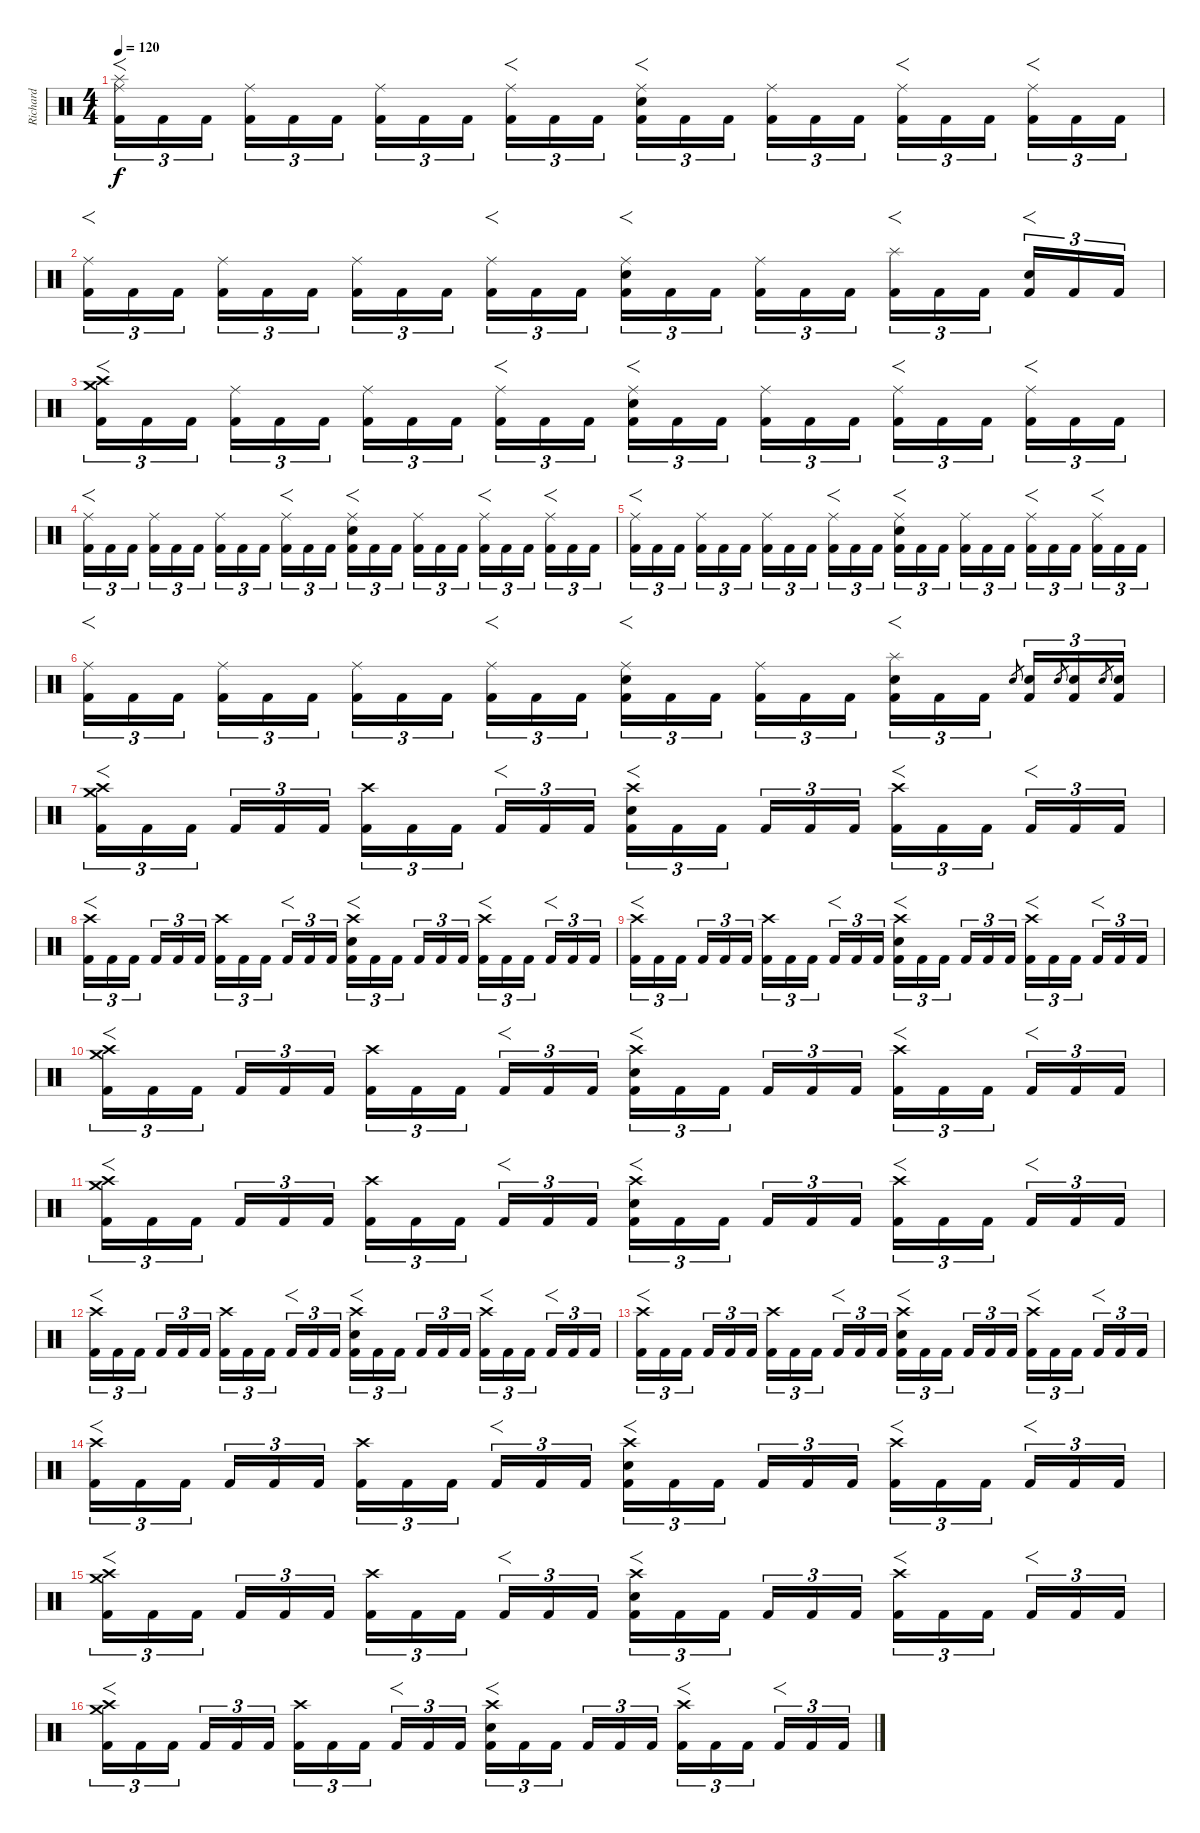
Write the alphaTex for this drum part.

\track ("Richard " "Richard ") {instrument percussion}
\staff {score}
\articulation defaults
\ts (4 4)
\tempo 120
\clef neutral
\ks c
("Ride (middle)" "Splash (hit)" "Kick (hit) 2").16{f tu (3 2) dy f} "Kick (hit) 2".16{tu (3 2)} "Kick (hit) 2".16{tu (3 2)} ("Ride (middle)" "Kick (hit) 2").16{tu (3 2)} "Kick (hit) 2".16{tu (3 2)} "Kick (hit) 2".16{tu (3 2)} ("Ride (middle)" "Kick (hit) 2").16{tu (3 2)} "Kick (hit) 2".16{tu (3 2)} "Kick (hit) 2".16{tu (3 2)} ("Ride (middle)" "Kick (hit) 2").16{f tu (3 2)} "Kick (hit) 2".16{tu (3 2)} "Kick (hit) 2".16{tu (3 2)} ("Ride (middle)" "Snare (hit) 2" "Kick (hit) 2").16{f tu (3 2)} "Kick (hit) 2".16{tu (3 2)} "Kick (hit) 2".16{tu (3 2)} ("Ride (middle)" "Kick (hit) 2").16{tu (3 2)} "Kick (hit) 2".16{tu (3 2)} "Kick (hit) 2".16{tu (3 2)} ("Ride (middle)" "Kick (hit) 2").16{f tu (3 2)} "Kick (hit) 2".16{tu (3 2)} "Kick (hit) 2".16{tu (3 2)} ("Ride (middle)" "Kick (hit) 2").16{f tu (3 2)} "Kick (hit) 2".16{tu (3 2)} "Kick (hit) 2".16{tu (3 2)} |
("Ride (middle)" "Kick (hit) 2").16{f tu (3 2)} "Kick (hit) 2".16{tu (3 2)} "Kick (hit) 2".16{tu (3 2)} ("Ride (middle)" "Kick (hit) 2").16{tu (3 2)} "Kick (hit) 2".16{tu (3 2)} "Kick (hit) 2".16{tu (3 2)} ("Ride (middle)" "Kick (hit) 2").16{tu (3 2)} "Kick (hit) 2".16{tu (3 2)} "Kick (hit) 2".16{tu (3 2)} ("Ride (middle)" "Kick (hit) 2").16{f tu (3 2)} "Kick (hit) 2".16{tu (3 2)} "Kick (hit) 2".16{tu (3 2)} ("Ride (middle)" "Snare (hit) 2" "Kick (hit) 2").16{f tu (3 2)} "Kick (hit) 2".16{tu (3 2)} "Kick (hit) 2".16{tu (3 2)} ("Ride (middle)" "Kick (hit) 2").16{tu (3 2)} "Kick (hit) 2".16{tu (3 2)} "Kick (hit) 2".16{tu (3 2)} ("Splash (hit)" "Kick (hit) 2").16{f tu (3 2)} "Kick (hit) 2".16{tu (3 2)} "Kick (hit) 2".16{tu (3 2)} ("Snare (hit) 2" "Kick (hit) 2").16{f tu (3 2)} "Kick (hit) 2".16{tu (3 2)} "Kick (hit) 2".16{tu (3 2)} |
("Crash high (hit)" "Crash medium (hit)" "Kick (hit) 2").16{f tu (3 2)} "Kick (hit) 2".16{tu (3 2)} "Kick (hit) 2".16{tu (3 2)} ("Ride (middle)" "Kick (hit) 2").16{tu (3 2)} "Kick (hit) 2".16{tu (3 2)} "Kick (hit) 2".16{tu (3 2)} ("Ride (middle)" "Kick (hit) 2").16{tu (3 2)} "Kick (hit) 2".16{tu (3 2)} "Kick (hit) 2".16{tu (3 2)} ("Ride (middle)" "Kick (hit) 2").16{f tu (3 2)} "Kick (hit) 2".16{tu (3 2)} "Kick (hit) 2".16{tu (3 2)} ("Ride (middle)" "Snare (hit) 2" "Kick (hit) 2").16{f tu (3 2)} "Kick (hit) 2".16{tu (3 2)} "Kick (hit) 2".16{tu (3 2)} ("Ride (middle)" "Kick (hit) 2").16{tu (3 2)} "Kick (hit) 2".16{tu (3 2)} "Kick (hit) 2".16{tu (3 2)} ("Ride (middle)" "Kick (hit) 2").16{f tu (3 2)} "Kick (hit) 2".16{tu (3 2)} "Kick (hit) 2".16{tu (3 2)} ("Ride (middle)" "Kick (hit) 2").16{f tu (3 2)} "Kick (hit) 2".16{tu (3 2)} "Kick (hit) 2".16{tu (3 2)} |
("Ride (middle)" "Kick (hit) 2").16{f tu (3 2)} "Kick (hit) 2".16{tu (3 2)} "Kick (hit) 2".16{tu (3 2)} ("Ride (middle)" "Kick (hit) 2").16{tu (3 2)} "Kick (hit) 2".16{tu (3 2)} "Kick (hit) 2".16{tu (3 2)} ("Ride (middle)" "Kick (hit) 2").16{tu (3 2)} "Kick (hit) 2".16{tu (3 2)} "Kick (hit) 2".16{tu (3 2)} ("Ride (middle)" "Kick (hit) 2").16{f tu (3 2)} "Kick (hit) 2".16{tu (3 2)} "Kick (hit) 2".16{tu (3 2)} ("Ride (middle)" "Snare (hit) 2" "Kick (hit) 2").16{f tu (3 2)} "Kick (hit) 2".16{tu (3 2)} "Kick (hit) 2".16{tu (3 2)} ("Ride (middle)" "Kick (hit) 2").16{tu (3 2)} "Kick (hit) 2".16{tu (3 2)} "Kick (hit) 2".16{tu (3 2)} ("Ride (middle)" "Kick (hit) 2").16{f tu (3 2)} "Kick (hit) 2".16{tu (3 2)} "Kick (hit) 2".16{tu (3 2)} ("Ride (middle)" "Kick (hit) 2").16{f tu (3 2)} "Kick (hit) 2".16{tu (3 2)} "Kick (hit) 2".16{tu (3 2)} |
("Ride (middle)" "Kick (hit) 2").16{f tu (3 2)} "Kick (hit) 2".16{tu (3 2)} "Kick (hit) 2".16{tu (3 2)} ("Ride (middle)" "Kick (hit) 2").16{tu (3 2)} "Kick (hit) 2".16{tu (3 2)} "Kick (hit) 2".16{tu (3 2)} ("Ride (middle)" "Kick (hit) 2").16{tu (3 2)} "Kick (hit) 2".16{tu (3 2)} "Kick (hit) 2".16{tu (3 2)} ("Ride (middle)" "Kick (hit) 2").16{f tu (3 2)} "Kick (hit) 2".16{tu (3 2)} "Kick (hit) 2".16{tu (3 2)} ("Ride (middle)" "Snare (hit) 2" "Kick (hit) 2").16{f tu (3 2)} "Kick (hit) 2".16{tu (3 2)} "Kick (hit) 2".16{tu (3 2)} ("Ride (middle)" "Kick (hit) 2").16{tu (3 2)} "Kick (hit) 2".16{tu (3 2)} "Kick (hit) 2".16{tu (3 2)} ("Ride (middle)" "Kick (hit) 2").16{f tu (3 2)} "Kick (hit) 2".16{tu (3 2)} "Kick (hit) 2".16{tu (3 2)} ("Ride (middle)" "Kick (hit) 2").16{f tu (3 2)} "Kick (hit) 2".16{tu (3 2)} "Kick (hit) 2".16{tu (3 2)} |
("Ride (middle)" "Kick (hit) 2").16{f tu (3 2)} "Kick (hit) 2".16{tu (3 2)} "Kick (hit) 2".16{tu (3 2)} ("Ride (middle)" "Kick (hit) 2").16{tu (3 2)} "Kick (hit) 2".16{tu (3 2)} "Kick (hit) 2".16{tu (3 2)} ("Ride (middle)" "Kick (hit) 2").16{tu (3 2)} "Kick (hit) 2".16{tu (3 2)} "Kick (hit) 2".16{tu (3 2)} ("Ride (middle)" "Kick (hit) 2").16{f tu (3 2)} "Kick (hit) 2".16{tu (3 2)} "Kick (hit) 2".16{tu (3 2)} ("Ride (middle)" "Snare (hit) 2" "Kick (hit) 2").16{f tu (3 2)} "Kick (hit) 2".16{tu (3 2)} "Kick (hit) 2".16{tu (3 2)} ("Ride (middle)" "Kick (hit) 2").16{tu (3 2)} "Kick (hit) 2".16{tu (3 2)} "Kick (hit) 2".16{tu (3 2)} ("Splash (hit)" "Snare (hit) 2" "Kick (hit) 2").16{f tu (3 2)} "Kick (hit) 2".16{tu (3 2)} "Kick (hit) 2".16{tu (3 2)} "Snare (hit) 2".8{gr} ("Snare (hit) 2" "Kick (hit) 2").16{tu (3 2)} "Snare (hit) 2".8{gr} ("Snare (hit) 2" "Kick (hit) 2").16{tu (3 2)} "Snare (hit) 2".8{gr} ("Snare (hit) 2" "Kick (hit) 2").16{tu (3 2)} |
("Crash high (hit)" "Crash medium (hit)" "Kick (hit) 2").16{f tu (3 2)} "Kick (hit) 2".16{tu (3 2)} "Kick (hit) 2".16{tu (3 2)} "Kick (hit) 2".16{tu (3 2)} "Kick (hit) 2".16{tu (3 2)} "Kick (hit) 2".16{tu (3 2)} ("Crash high (hit)" "Kick (hit) 2").16{tu (3 2)} "Kick (hit) 2".16{tu (3 2)} "Kick (hit) 2".16{tu (3 2)} "Kick (hit) 2".16{f tu (3 2)} "Kick (hit) 2".16{tu (3 2)} "Kick (hit) 2".16{tu (3 2)} ("Crash high (hit)" "Snare (hit) 2" "Kick (hit) 2").16{f tu (3 2)} "Kick (hit) 2".16{tu (3 2)} "Kick (hit) 2".16{tu (3 2)} "Kick (hit) 2".16{tu (3 2)} "Kick (hit) 2".16{tu (3 2)} "Kick (hit) 2".16{tu (3 2)} ("Crash high (hit)" "Kick (hit) 2").16{f tu (3 2)} "Kick (hit) 2".16{tu (3 2)} "Kick (hit) 2".16{tu (3 2)} "Kick (hit) 2".16{f tu (3 2)} "Kick (hit) 2".16{tu (3 2)} "Kick (hit) 2".16{tu (3 2)} |
("Crash high (hit)" "Kick (hit) 2").16{f tu (3 2) volume 15} "Kick (hit) 2".16{tu (3 2)} "Kick (hit) 2".16{tu (3 2)} "Kick (hit) 2".16{tu (3 2)} "Kick (hit) 2".16{tu (3 2)} "Kick (hit) 2".16{tu (3 2)} ("Crash high (hit)" "Kick (hit) 2").16{tu (3 2)} "Kick (hit) 2".16{tu (3 2)} "Kick (hit) 2".16{tu (3 2)} "Kick (hit) 2".16{f tu (3 2)} "Kick (hit) 2".16{tu (3 2)} "Kick (hit) 2".16{tu (3 2)} ("Crash high (hit)" "Snare (hit) 2" "Kick (hit) 2").16{f tu (3 2)} "Kick (hit) 2".16{tu (3 2)} "Kick (hit) 2".16{tu (3 2)} "Kick (hit) 2".16{tu (3 2)} "Kick (hit) 2".16{tu (3 2)} "Kick (hit) 2".16{tu (3 2)} ("Crash high (hit)" "Kick (hit) 2").16{f tu (3 2)} "Kick (hit) 2".16{tu (3 2)} "Kick (hit) 2".16{tu (3 2)} "Kick (hit) 2".16{f tu (3 2)} "Kick (hit) 2".16{tu (3 2)} "Kick (hit) 2".16{tu (3 2)} |
("Crash high (hit)" "Kick (hit) 2").16{f tu (3 2) volume 14} "Kick (hit) 2".16{tu (3 2)} "Kick (hit) 2".16{tu (3 2)} "Kick (hit) 2".16{tu (3 2)} "Kick (hit) 2".16{tu (3 2)} "Kick (hit) 2".16{tu (3 2)} ("Crash high (hit)" "Kick (hit) 2").16{tu (3 2)} "Kick (hit) 2".16{tu (3 2)} "Kick (hit) 2".16{tu (3 2)} "Kick (hit) 2".16{f tu (3 2)} "Kick (hit) 2".16{tu (3 2)} "Kick (hit) 2".16{tu (3 2)} ("Crash high (hit)" "Snare (hit) 2" "Kick (hit) 2").16{f tu (3 2)} "Kick (hit) 2".16{tu (3 2)} "Kick (hit) 2".16{tu (3 2)} "Kick (hit) 2".16{tu (3 2)} "Kick (hit) 2".16{tu (3 2)} "Kick (hit) 2".16{tu (3 2)} ("Crash high (hit)" "Kick (hit) 2").16{f tu (3 2)} "Kick (hit) 2".16{tu (3 2)} "Kick (hit) 2".16{tu (3 2)} "Kick (hit) 2".16{f tu (3 2)} "Kick (hit) 2".16{tu (3 2)} "Kick (hit) 2".16{tu (3 2)} |
("Crash high (hit)" "Crash medium (hit)" "Kick (hit) 2").16{f tu (3 2) volume 13} "Kick (hit) 2".16{tu (3 2)} "Kick (hit) 2".16{tu (3 2)} "Kick (hit) 2".16{tu (3 2)} "Kick (hit) 2".16{tu (3 2)} "Kick (hit) 2".16{tu (3 2)} ("Crash high (hit)" "Kick (hit) 2").16{tu (3 2)} "Kick (hit) 2".16{tu (3 2)} "Kick (hit) 2".16{tu (3 2)} "Kick (hit) 2".16{f tu (3 2)} "Kick (hit) 2".16{tu (3 2)} "Kick (hit) 2".16{tu (3 2)} ("Crash high (hit)" "Snare (hit) 2" "Kick (hit) 2").16{f tu (3 2)} "Kick (hit) 2".16{tu (3 2)} "Kick (hit) 2".16{tu (3 2)} "Kick (hit) 2".16{tu (3 2)} "Kick (hit) 2".16{tu (3 2)} "Kick (hit) 2".16{tu (3 2)} ("Crash high (hit)" "Kick (hit) 2").16{f tu (3 2)} "Kick (hit) 2".16{tu (3 2)} "Kick (hit) 2".16{tu (3 2)} "Kick (hit) 2".16{f tu (3 2)} "Kick (hit) 2".16{tu (3 2)} "Kick (hit) 2".16{tu (3 2)} |
("Crash high (hit)" "Crash medium (hit)" "Kick (hit) 2").16{f tu (3 2) volume 12} "Kick (hit) 2".16{tu (3 2)} "Kick (hit) 2".16{tu (3 2)} "Kick (hit) 2".16{tu (3 2)} "Kick (hit) 2".16{tu (3 2)} "Kick (hit) 2".16{tu (3 2)} ("Crash high (hit)" "Kick (hit) 2").16{tu (3 2)} "Kick (hit) 2".16{tu (3 2)} "Kick (hit) 2".16{tu (3 2)} "Kick (hit) 2".16{f tu (3 2)} "Kick (hit) 2".16{tu (3 2)} "Kick (hit) 2".16{tu (3 2)} ("Crash high (hit)" "Snare (hit) 2" "Kick (hit) 2").16{f tu (3 2)} "Kick (hit) 2".16{tu (3 2)} "Kick (hit) 2".16{tu (3 2)} "Kick (hit) 2".16{tu (3 2)} "Kick (hit) 2".16{tu (3 2)} "Kick (hit) 2".16{tu (3 2)} ("Crash high (hit)" "Kick (hit) 2").16{f tu (3 2)} "Kick (hit) 2".16{tu (3 2)} "Kick (hit) 2".16{tu (3 2)} "Kick (hit) 2".16{f tu (3 2)} "Kick (hit) 2".16{tu (3 2)} "Kick (hit) 2".16{tu (3 2)} |
("Crash high (hit)" "Kick (hit) 2").16{f tu (3 2) volume 11} "Kick (hit) 2".16{tu (3 2)} "Kick (hit) 2".16{tu (3 2)} "Kick (hit) 2".16{tu (3 2)} "Kick (hit) 2".16{tu (3 2)} "Kick (hit) 2".16{tu (3 2)} ("Crash high (hit)" "Kick (hit) 2").16{tu (3 2)} "Kick (hit) 2".16{tu (3 2)} "Kick (hit) 2".16{tu (3 2)} "Kick (hit) 2".16{f tu (3 2)} "Kick (hit) 2".16{tu (3 2)} "Kick (hit) 2".16{tu (3 2)} ("Crash high (hit)" "Snare (hit) 2" "Kick (hit) 2").16{f tu (3 2)} "Kick (hit) 2".16{tu (3 2)} "Kick (hit) 2".16{tu (3 2)} "Kick (hit) 2".16{tu (3 2)} "Kick (hit) 2".16{tu (3 2)} "Kick (hit) 2".16{tu (3 2)} ("Crash high (hit)" "Kick (hit) 2").16{f tu (3 2)} "Kick (hit) 2".16{tu (3 2)} "Kick (hit) 2".16{tu (3 2)} "Kick (hit) 2".16{f tu (3 2)} "Kick (hit) 2".16{tu (3 2)} "Kick (hit) 2".16{tu (3 2)} |
("Crash high (hit)" "Kick (hit) 2").16{f tu (3 2) volume 10} "Kick (hit) 2".16{tu (3 2)} "Kick (hit) 2".16{tu (3 2)} "Kick (hit) 2".16{tu (3 2)} "Kick (hit) 2".16{tu (3 2)} "Kick (hit) 2".16{tu (3 2)} ("Crash high (hit)" "Kick (hit) 2").16{tu (3 2)} "Kick (hit) 2".16{tu (3 2)} "Kick (hit) 2".16{tu (3 2)} "Kick (hit) 2".16{f tu (3 2)} "Kick (hit) 2".16{tu (3 2)} "Kick (hit) 2".16{tu (3 2)} ("Crash high (hit)" "Snare (hit) 2" "Kick (hit) 2").16{f tu (3 2)} "Kick (hit) 2".16{tu (3 2)} "Kick (hit) 2".16{tu (3 2)} "Kick (hit) 2".16{tu (3 2)} "Kick (hit) 2".16{tu (3 2)} "Kick (hit) 2".16{tu (3 2)} ("Crash high (hit)" "Kick (hit) 2").16{f tu (3 2)} "Kick (hit) 2".16{tu (3 2)} "Kick (hit) 2".16{tu (3 2)} "Kick (hit) 2".16{f tu (3 2)} "Kick (hit) 2".16{tu (3 2)} "Kick (hit) 2".16{tu (3 2)} |
("Crash high (hit)" "Kick (hit) 2").16{f tu (3 2) volume 9} "Kick (hit) 2".16{tu (3 2)} "Kick (hit) 2".16{tu (3 2)} "Kick (hit) 2".16{tu (3 2)} "Kick (hit) 2".16{tu (3 2)} "Kick (hit) 2".16{tu (3 2)} ("Crash high (hit)" "Kick (hit) 2").16{tu (3 2)} "Kick (hit) 2".16{tu (3 2)} "Kick (hit) 2".16{tu (3 2)} "Kick (hit) 2".16{f tu (3 2)} "Kick (hit) 2".16{tu (3 2)} "Kick (hit) 2".16{tu (3 2)} ("Crash high (hit)" "Snare (hit) 2" "Kick (hit) 2").16{f tu (3 2)} "Kick (hit) 2".16{tu (3 2)} "Kick (hit) 2".16{tu (3 2)} "Kick (hit) 2".16{tu (3 2)} "Kick (hit) 2".16{tu (3 2)} "Kick (hit) 2".16{tu (3 2)} ("Crash high (hit)" "Kick (hit) 2").16{f tu (3 2)} "Kick (hit) 2".16{tu (3 2)} "Kick (hit) 2".16{tu (3 2)} "Kick (hit) 2".16{f tu (3 2)} "Kick (hit) 2".16{tu (3 2)} "Kick (hit) 2".16{tu (3 2)} |
("Crash high (hit)" "Crash medium (hit)" "Kick (hit) 2").16{f tu (3 2) volume 8} "Kick (hit) 2".16{tu (3 2)} "Kick (hit) 2".16{tu (3 2)} "Kick (hit) 2".16{tu (3 2)} "Kick (hit) 2".16{tu (3 2)} "Kick (hit) 2".16{tu (3 2)} ("Crash high (hit)" "Kick (hit) 2").16{tu (3 2)} "Kick (hit) 2".16{tu (3 2)} "Kick (hit) 2".16{tu (3 2)} "Kick (hit) 2".16{f tu (3 2)} "Kick (hit) 2".16{tu (3 2)} "Kick (hit) 2".16{tu (3 2)} ("Crash high (hit)" "Snare (hit) 2" "Kick (hit) 2").16{f tu (3 2)} "Kick (hit) 2".16{tu (3 2)} "Kick (hit) 2".16{tu (3 2)} "Kick (hit) 2".16{tu (3 2)} "Kick (hit) 2".16{tu (3 2)} "Kick (hit) 2".16{tu (3 2)} ("Crash high (hit)" "Kick (hit) 2").16{f tu (3 2)} "Kick (hit) 2".16{tu (3 2)} "Kick (hit) 2".16{tu (3 2)} "Kick (hit) 2".16{f tu (3 2)} "Kick (hit) 2".16{tu (3 2)} "Kick (hit) 2".16{tu (3 2)} |
("Crash high (hit)" "Crash medium (hit)" "Kick (hit) 2").16{f tu (3 2) volume 7} "Kick (hit) 2".16{tu (3 2)} "Kick (hit) 2".16{tu (3 2)} "Kick (hit) 2".16{tu (3 2)} "Kick (hit) 2".16{tu (3 2)} "Kick (hit) 2".16{tu (3 2)} ("Crash high (hit)" "Kick (hit) 2").16{tu (3 2)} "Kick (hit) 2".16{tu (3 2)} "Kick (hit) 2".16{tu (3 2)} "Kick (hit) 2".16{f tu (3 2)} "Kick (hit) 2".16{tu (3 2)} "Kick (hit) 2".16{tu (3 2)} ("Crash high (hit)" "Snare (hit) 2" "Kick (hit) 2").16{f tu (3 2)} "Kick (hit) 2".16{tu (3 2)} "Kick (hit) 2".16{tu (3 2)} "Kick (hit) 2".16{tu (3 2)} "Kick (hit) 2".16{tu (3 2)} "Kick (hit) 2".16{tu (3 2)} ("Crash high (hit)" "Kick (hit) 2").16{f tu (3 2)} "Kick (hit) 2".16{tu (3 2)} "Kick (hit) 2".16{tu (3 2)} "Kick (hit) 2".16{f tu (3 2)} "Kick (hit) 2".16{tu (3 2)} "Kick (hit) 2".16{tu (3 2)}
